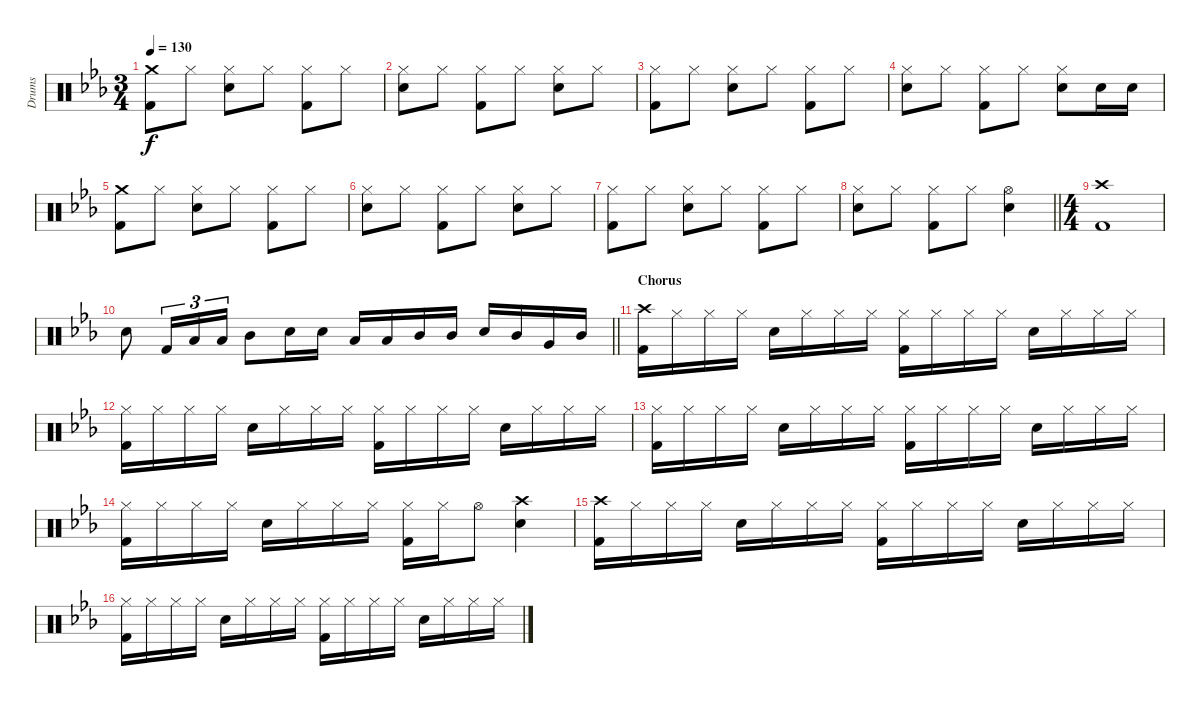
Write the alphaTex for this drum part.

\track ("Drums" "Drums") {instrument percussion}
\staff {score}
\articulation defaults
\ts (3 4)
\tempo 130
\clef neutral
\ks eb
("Crash medium (hit)" "Kick (hit) 2").8{dy f} "Hi-Hat (closed)".8 ("Hi-Hat (closed)" "Electric Snare (hit)").8 "Hi-Hat (closed)".8 ("Hi-Hat (closed)" "Kick (hit) 2").8 "Hi-Hat (closed)".8 |
("Hi-Hat (closed)" "Electric Snare (hit)").8 "Hi-Hat (closed)".8 ("Hi-Hat (closed)" "Kick (hit) 2").8 "Hi-Hat (closed)".8 ("Hi-Hat (closed)" "Electric Snare (hit)").8 "Hi-Hat (closed)".8 |
("Hi-Hat (closed)" "Kick (hit) 2").8 "Hi-Hat (closed)".8 ("Hi-Hat (closed)" "Electric Snare (hit)").8 "Hi-Hat (closed)".8 ("Hi-Hat (closed)" "Kick (hit) 2").8 "Hi-Hat (closed)".8 |
("Hi-Hat (closed)" "Electric Snare (hit)").8 "Hi-Hat (closed)".8 ("Hi-Hat (closed)" "Kick (hit) 2").8 "Hi-Hat (closed)".8 ("Hi-Hat (closed)" "Electric Snare (hit)").8 "Electric Snare (hit)".16 "Electric Snare (hit)".16 |
("Crash medium (hit)" "Kick (hit) 2").8 "Hi-Hat (closed)".8 ("Hi-Hat (closed)" "Electric Snare (hit)").8 "Hi-Hat (closed)".8 ("Hi-Hat (closed)" "Kick (hit) 2").8 "Hi-Hat (closed)".8 |
("Hi-Hat (closed)" "Electric Snare (hit)").8 "Hi-Hat (closed)".8 ("Hi-Hat (closed)" "Kick (hit) 2").8 "Hi-Hat (closed)".8 ("Hi-Hat (closed)" "Electric Snare (hit)").8 "Hi-Hat (closed)".8 |
("Hi-Hat (closed)" "Kick (hit) 2").8 "Hi-Hat (closed)".8 ("Hi-Hat (closed)" "Electric Snare (hit)").8 "Hi-Hat (closed)".8 ("Hi-Hat (closed)" "Kick (hit) 2").8 "Hi-Hat (closed)".8 |
\barLineRight lightlight
("Hi-Hat (closed)" "Electric Snare (hit)").8 "Hi-Hat (closed)".8 ("Hi-Hat (closed)" "Kick (hit) 2").8 "Hi-Hat (closed)".8 ("Hi-Hat (open)" "Electric Snare (hit)").4 |
\ts (4 4)
("Crash high (hit)" "Kick (hit) 2").1 |
\barLineRight lightlight "Electric Snare (hit)".8 "Kick (hit) 2".16{tu (3 2)} "Low Tom (hit)".16{tu (3 2)} "Low Tom (hit)".16{tu (3 2)} "Mid Tom (hit)".8 "Electric Snare (hit)".16 "Electric Snare (hit)".16 "Low Tom (hit)".16 "Low Tom (hit)".16 "Mid Tom (hit)".16 "Mid Tom (hit)".16 "Electric Snare (hit)".16 "Mid Tom (hit)".16 "Very Low Tom (hit)".16 "Mid Tom (hit)".16
|
\section ("" "Chorus")
("Crash high (hit)" "Kick (hit) 2").16 "Hi-Hat (closed)".16 "Hi-Hat (closed)".16 "Hi-Hat (closed)".16 "Electric Snare (hit)".16 "Hi-Hat (closed)".16 "Hi-Hat (closed)".16 "Hi-Hat (closed)".16 ("Hi-Hat (closed)" "Kick (hit) 2").16 "Hi-Hat (closed)".16 "Hi-Hat (closed)".16 "Hi-Hat (closed)".16 "Electric Snare (hit)".16 "Hi-Hat (closed)".16 "Hi-Hat (closed)".16 "Hi-Hat (closed)".16 |
("Hi-Hat (closed)" "Kick (hit) 2").16 "Hi-Hat (closed)".16 "Hi-Hat (closed)".16 "Hi-Hat (closed)".16 "Electric Snare (hit)".16 "Hi-Hat (closed)".16 "Hi-Hat (closed)".16 "Hi-Hat (closed)".16 ("Hi-Hat (closed)" "Kick (hit) 2").16 "Hi-Hat (closed)".16 "Hi-Hat (closed)".16 "Hi-Hat (closed)".16 "Electric Snare (hit)".16 "Hi-Hat (closed)".16 "Hi-Hat (closed)".16 "Hi-Hat (closed)".16 |
("Hi-Hat (closed)" "Kick (hit) 2").16 "Hi-Hat (closed)".16 "Hi-Hat (closed)".16 "Hi-Hat (closed)".16 "Electric Snare (hit)".16 "Hi-Hat (closed)".16 "Hi-Hat (closed)".16 "Hi-Hat (closed)".16 ("Hi-Hat (closed)" "Kick (hit) 2").16 "Hi-Hat (closed)".16 "Hi-Hat (closed)".16 "Hi-Hat (closed)".16 "Electric Snare (hit)".16 "Hi-Hat (closed)".16 "Hi-Hat (closed)".16 "Hi-Hat (closed)".16 |
("Hi-Hat (closed)" "Kick (hit) 2").16 "Hi-Hat (closed)".16 "Hi-Hat (closed)".16 "Hi-Hat (closed)".16 "Electric Snare (hit)".16 "Hi-Hat (closed)".16 "Hi-Hat (closed)".16 "Hi-Hat (closed)".16 ("Hi-Hat (closed)" "Kick (hit) 2").16 "Hi-Hat (closed)".16 "Hi-Hat (open)".8 ("Crash high (hit)" "Snare (hit) 2").4 |
("Crash high (hit)" "Kick (hit) 2").16 "Hi-Hat (closed)".16 "Hi-Hat (closed)".16 "Hi-Hat (closed)".16 "Electric Snare (hit)".16 "Hi-Hat (closed)".16 "Hi-Hat (closed)".16 "Hi-Hat (closed)".16 ("Hi-Hat (closed)" "Kick (hit) 2").16 "Hi-Hat (closed)".16 "Hi-Hat (closed)".16 "Hi-Hat (closed)".16 "Electric Snare (hit)".16 "Hi-Hat (closed)".16 "Hi-Hat (closed)".16 "Hi-Hat (closed)".16 |
("Hi-Hat (closed)" "Kick (hit) 2").16 "Hi-Hat (closed)".16 "Hi-Hat (closed)".16 "Hi-Hat (closed)".16 "Electric Snare (hit)".16 "Hi-Hat (closed)".16 "Hi-Hat (closed)".16 "Hi-Hat (closed)".16 ("Hi-Hat (closed)" "Kick (hit) 2").16 "Hi-Hat (closed)".16 "Hi-Hat (closed)".16 "Hi-Hat (closed)".16 "Electric Snare (hit)".16 "Hi-Hat (closed)".16 "Hi-Hat (closed)".16 "Hi-Hat (closed)".16
